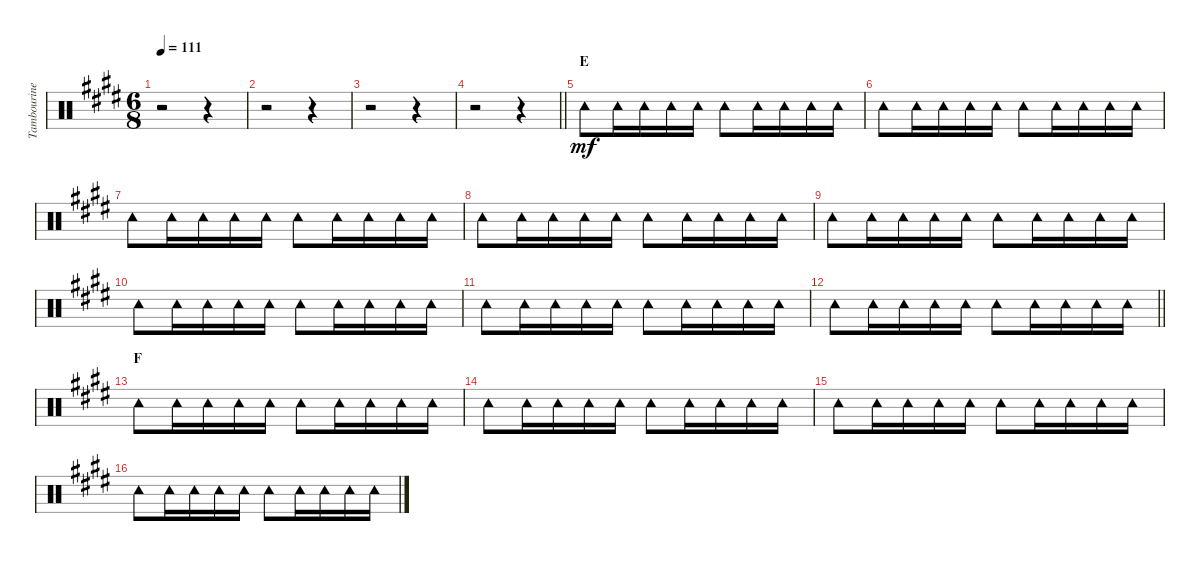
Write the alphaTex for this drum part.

\track ("Tambourine" "Tambourine") {instrument percussion}
\staff {score}
\articulation defaults
\ts (6 8)
\tempo 111
\clef neutral
\ks e
r.2{dy mf} r.4 |
r.2 r.4 |
r.2 r.4 |
\barLineRight lightlight
r.2 r.4 |
\section ("" "E")
"Tambourine (hit)".8 "Tambourine (hit)".16 "Tambourine (hit)".16 "Tambourine (hit)".16 "Tambourine (hit)".16 "Tambourine (hit)".8 "Tambourine (hit)".16 "Tambourine (hit)".16 "Tambourine (hit)".16 "Tambourine (hit)".16 |
"Tambourine (hit)".8 "Tambourine (hit)".16 "Tambourine (hit)".16 "Tambourine (hit)".16 "Tambourine (hit)".16 "Tambourine (hit)".8 "Tambourine (hit)".16 "Tambourine (hit)".16 "Tambourine (hit)".16 "Tambourine (hit)".16 |
"Tambourine (hit)".8 "Tambourine (hit)".16 "Tambourine (hit)".16 "Tambourine (hit)".16 "Tambourine (hit)".16 "Tambourine (hit)".8 "Tambourine (hit)".16 "Tambourine (hit)".16 "Tambourine (hit)".16 "Tambourine (hit)".16 |
"Tambourine (hit)".8 "Tambourine (hit)".16 "Tambourine (hit)".16 "Tambourine (hit)".16 "Tambourine (hit)".16 "Tambourine (hit)".8 "Tambourine (hit)".16 "Tambourine (hit)".16 "Tambourine (hit)".16 "Tambourine (hit)".16 |
"Tambourine (hit)".8 "Tambourine (hit)".16 "Tambourine (hit)".16 "Tambourine (hit)".16 "Tambourine (hit)".16 "Tambourine (hit)".8 "Tambourine (hit)".16 "Tambourine (hit)".16 "Tambourine (hit)".16 "Tambourine (hit)".16 |
"Tambourine (hit)".8 "Tambourine (hit)".16 "Tambourine (hit)".16 "Tambourine (hit)".16 "Tambourine (hit)".16 "Tambourine (hit)".8 "Tambourine (hit)".16 "Tambourine (hit)".16 "Tambourine (hit)".16 "Tambourine (hit)".16 |
"Tambourine (hit)".8 "Tambourine (hit)".16 "Tambourine (hit)".16 "Tambourine (hit)".16 "Tambourine (hit)".16 "Tambourine (hit)".8 "Tambourine (hit)".16 "Tambourine (hit)".16 "Tambourine (hit)".16 "Tambourine (hit)".16 |
\barLineRight lightlight "Tambourine (hit)".8 "Tambourine (hit)".16 "Tambourine (hit)".16 "Tambourine (hit)".16 "Tambourine (hit)".16 "Tambourine (hit)".8 "Tambourine (hit)".16 "Tambourine (hit)".16 "Tambourine (hit)".16 "Tambourine (hit)".16
|
\section ("" "F")
"Tambourine (hit)".8 "Tambourine (hit)".16 "Tambourine (hit)".16 "Tambourine (hit)".16 "Tambourine (hit)".16 "Tambourine (hit)".8 "Tambourine (hit)".16 "Tambourine (hit)".16 "Tambourine (hit)".16 "Tambourine (hit)".16 |
"Tambourine (hit)".8 "Tambourine (hit)".16 "Tambourine (hit)".16 "Tambourine (hit)".16 "Tambourine (hit)".16 "Tambourine (hit)".8 "Tambourine (hit)".16 "Tambourine (hit)".16 "Tambourine (hit)".16 "Tambourine (hit)".16 |
"Tambourine (hit)".8 "Tambourine (hit)".16 "Tambourine (hit)".16 "Tambourine (hit)".16 "Tambourine (hit)".16 "Tambourine (hit)".8 "Tambourine (hit)".16 "Tambourine (hit)".16 "Tambourine (hit)".16 "Tambourine (hit)".16 |
"Tambourine (hit)".8 "Tambourine (hit)".16 "Tambourine (hit)".16 "Tambourine (hit)".16 "Tambourine (hit)".16 "Tambourine (hit)".8 "Tambourine (hit)".16 "Tambourine (hit)".16 "Tambourine (hit)".16 "Tambourine (hit)".16
